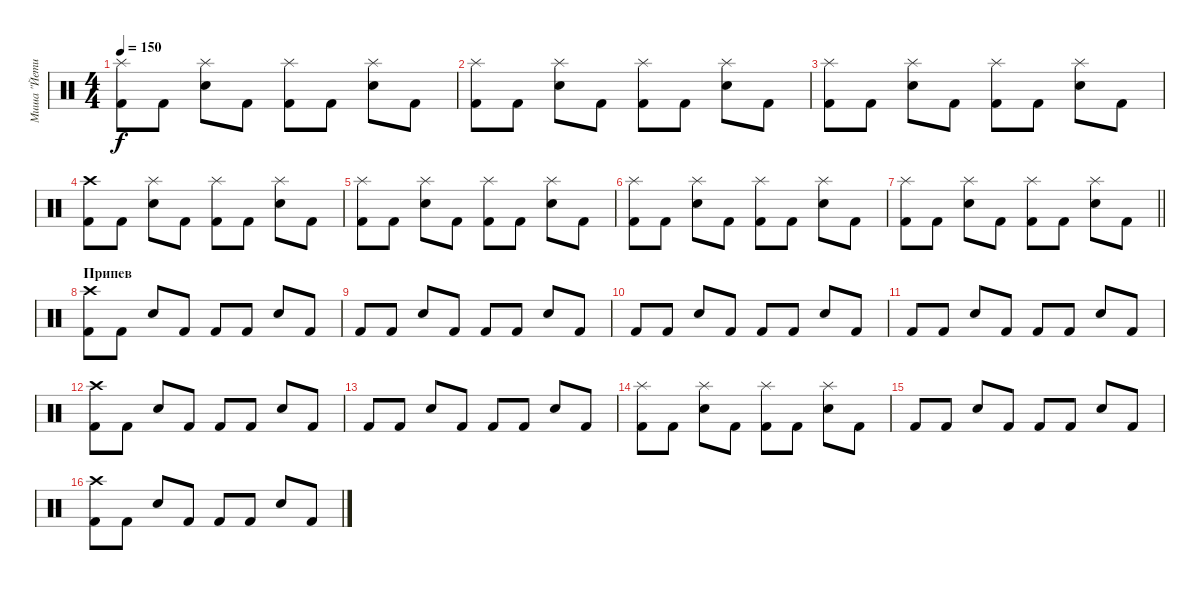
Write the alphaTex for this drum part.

\track ("Миша \"Йети\" Евсеев" "Миша \"Йети") {instrument percussion}
\staff {score}
\articulation defaults
\ts (4 4)
\tempo 150
\clef neutral
\ks c
("Kick (hit) 2" "Splash (hit)").8{dy f} "Kick (hit) 2".8 ("Snare (hit) 2" "Splash (hit)").8 "Kick (hit) 2".8 ("Kick (hit) 2" "Splash (hit)").8 "Kick (hit) 2".8 ("Snare (hit) 2" "Splash (hit)").8 "Kick (hit) 2".8 |
("Kick (hit) 2" "Splash (hit)").8 "Kick (hit) 2".8 ("Snare (hit) 2" "Splash (hit)").8 "Kick (hit) 2".8 ("Kick (hit) 2" "Splash (hit)").8 "Kick (hit) 2".8 ("Snare (hit) 2" "Splash (hit)").8 "Kick (hit) 2".8 |
("Kick (hit) 2" "Splash (hit)").8 "Kick (hit) 2".8 ("Snare (hit) 2" "Splash (hit)").8 "Kick (hit) 2".8 ("Kick (hit) 2" "Splash (hit)").8 "Kick (hit) 2".8 ("Snare (hit) 2" "Splash (hit)").8 "Kick (hit) 2".8 |
("Kick (hit) 2" "Crash high (hit)").8 "Kick (hit) 2".8 ("Snare (hit) 2" "Splash (hit)").8 "Kick (hit) 2".8 ("Kick (hit) 2" "Splash (hit)").8 "Kick (hit) 2".8 ("Snare (hit) 2" "Splash (hit)").8 "Kick (hit) 2".8 |
("Kick (hit) 2" "Splash (hit)").8 "Kick (hit) 2".8 ("Snare (hit) 2" "Splash (hit)").8 "Kick (hit) 2".8 ("Kick (hit) 2" "Splash (hit)").8 "Kick (hit) 2".8 ("Snare (hit) 2" "Splash (hit)").8 "Kick (hit) 2".8 |
("Kick (hit) 2" "Splash (hit)").8 "Kick (hit) 2".8 ("Snare (hit) 2" "Splash (hit)").8 "Kick (hit) 2".8 ("Kick (hit) 2" "Splash (hit)").8 "Kick (hit) 2".8 ("Snare (hit) 2" "Splash (hit)").8 "Kick (hit) 2".8 |
\barLineRight lightlight
("Kick (hit) 2" "Splash (hit)").8 "Kick (hit) 2".8 ("Snare (hit) 2" "Splash (hit)").8 "Kick (hit) 2".8 ("Kick (hit) 2" "Splash (hit)").8 "Kick (hit) 2".8 ("Snare (hit) 2" "Splash (hit)").8 "Kick (hit) 2".8 |
\section ("" "Припев")
("Kick (hit) 2" "Crash high (hit)").8 "Kick (hit) 2".8 "Snare (hit) 2".8 "Kick (hit) 2".8 "Kick (hit) 2".8 "Kick (hit) 2".8 "Snare (hit) 2".8 "Kick (hit) 2".8 |
"Kick (hit) 2".8 "Kick (hit) 2".8 "Snare (hit) 2".8 "Kick (hit) 2".8 "Kick (hit) 2".8 "Kick (hit) 2".8 "Snare (hit) 2".8 "Kick (hit) 2".8 |
"Kick (hit) 2".8 "Kick (hit) 2".8 "Snare (hit) 2".8 "Kick (hit) 2".8 "Kick (hit) 2".8 "Kick (hit) 2".8 "Snare (hit) 2".8 "Kick (hit) 2".8 |
"Kick (hit) 2".8 "Kick (hit) 2".8 "Snare (hit) 2".8 "Kick (hit) 2".8 "Kick (hit) 2".8 "Kick (hit) 2".8 "Snare (hit) 2".8 "Kick (hit) 2".8 |
("Kick (hit) 2" "Crash high (hit)").8 "Kick (hit) 2".8 "Snare (hit) 2".8 "Kick (hit) 2".8 "Kick (hit) 2".8 "Kick (hit) 2".8 "Snare (hit) 2".8 "Kick (hit) 2".8 |
"Kick (hit) 2".8 "Kick (hit) 2".8 "Snare (hit) 2".8 "Kick (hit) 2".8 "Kick (hit) 2".8 "Kick (hit) 2".8 "Snare (hit) 2".8 "Kick (hit) 2".8 |
("Kick (hit) 2" "Splash (hit)").8 "Kick (hit) 2".8 ("Snare (hit) 2" "Splash (hit)").8 "Kick (hit) 2".8 ("Kick (hit) 2" "Splash (hit)").8 "Kick (hit) 2".8 ("Snare (hit) 2" "Splash (hit)").8 "Kick (hit) 2".8 |
"Kick (hit) 2".8 "Kick (hit) 2".8 "Snare (hit) 2".8 "Kick (hit) 2".8 "Kick (hit) 2".8 "Kick (hit) 2".8 "Snare (hit) 2".8 "Kick (hit) 2".8 |
("Kick (hit) 2" "Crash high (hit)").8 "Kick (hit) 2".8 "Snare (hit) 2".8 "Kick (hit) 2".8 "Kick (hit) 2".8 "Kick (hit) 2".8 "Snare (hit) 2".8 "Kick (hit) 2".8
